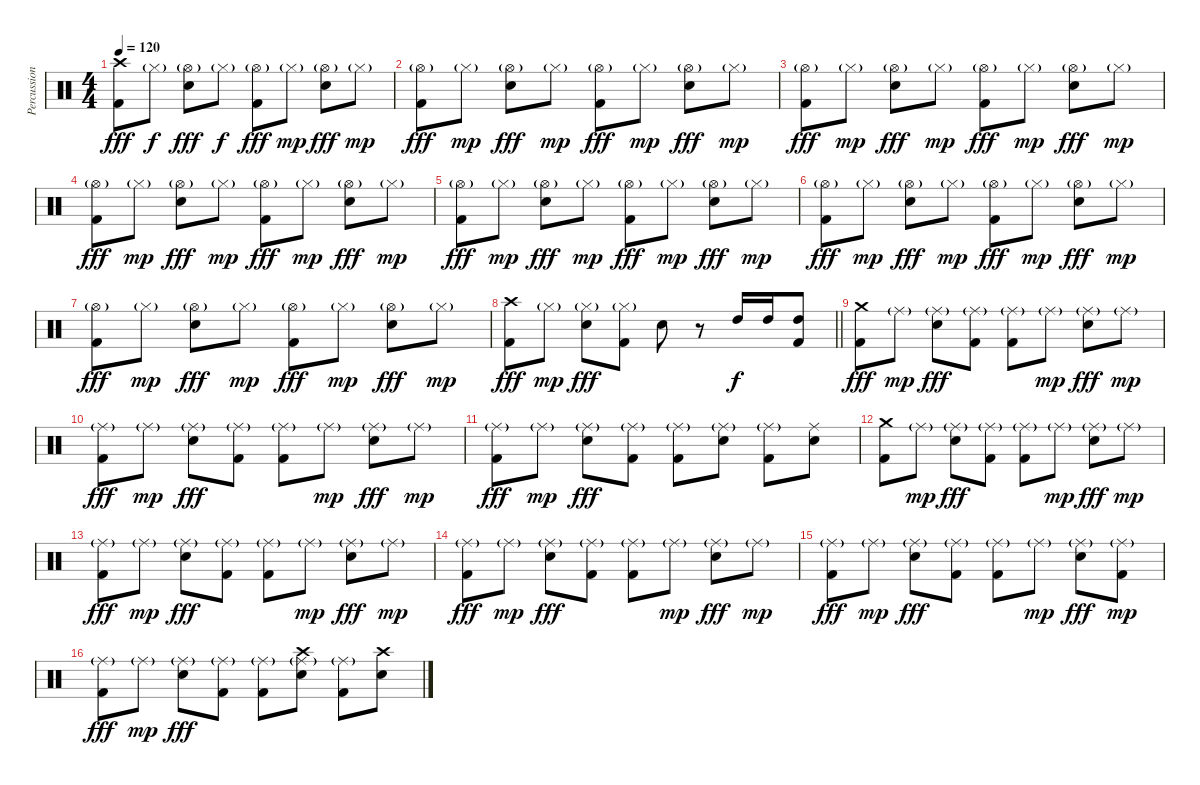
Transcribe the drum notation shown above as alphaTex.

\track ("Percussion" "Percussion") {instrument percussion}
\staff {score}
\articulation defaults
\ts (4 4)
\tempo 120
\clef neutral
\ks c
("Crash high (hit)" "Kick (hit) 2").8{dy fff} "Hi-Hat (closed)"{g}.8{dy f} ("Hi-Hat (open)"{g} "Electric Snare (hit)").8{dy fff} "Hi-Hat (closed)"{g}.8{dy f} ("Hi-Hat (open)"{g} "Kick (hit) 2").8{dy fff} "Hi-Hat (closed)"{g}.8{dy mp} ("Hi-Hat (open)"{g} "Electric Snare (hit)").8{dy fff} "Hi-Hat (closed)"{g}.8{dy mp} |
("Hi-Hat (open)"{g} "Kick (hit) 2").8{dy fff} "Hi-Hat (closed)"{g}.8{dy mp} ("Hi-Hat (open)"{g} "Electric Snare (hit)").8{dy fff} "Hi-Hat (closed)"{g}.8{dy mp} ("Hi-Hat (open)"{g} "Kick (hit) 2").8{dy fff} "Hi-Hat (closed)"{g}.8{dy mp} ("Hi-Hat (open)"{g} "Electric Snare (hit)").8{dy fff} "Hi-Hat (closed)"{g}.8{dy mp} |
("Hi-Hat (open)"{g} "Kick (hit) 2").8{dy fff} "Hi-Hat (closed)"{g}.8{dy mp} ("Hi-Hat (open)"{g} "Electric Snare (hit)").8{dy fff} "Hi-Hat (closed)"{g}.8{dy mp} ("Hi-Hat (open)"{g} "Kick (hit) 2").8{dy fff} "Hi-Hat (closed)"{g}.8{dy mp} ("Hi-Hat (open)"{g} "Electric Snare (hit)").8{dy fff} "Hi-Hat (closed)"{g}.8{dy mp} |
("Hi-Hat (open)"{g} "Kick (hit) 2").8{dy fff} "Hi-Hat (closed)"{g}.8{dy mp} ("Hi-Hat (open)"{g} "Electric Snare (hit)").8{dy fff} "Hi-Hat (closed)"{g}.8{dy mp} ("Hi-Hat (open)"{g} "Kick (hit) 2").8{dy fff} "Hi-Hat (closed)"{g}.8{dy mp} ("Hi-Hat (open)"{g} "Electric Snare (hit)").8{dy fff} "Hi-Hat (closed)"{g}.8{dy mp} |
("Hi-Hat (open)"{g} "Kick (hit) 2").8{dy fff} "Hi-Hat (closed)"{g}.8{dy mp} ("Hi-Hat (open)"{g} "Electric Snare (hit)").8{dy fff} "Hi-Hat (closed)"{g}.8{dy mp} ("Hi-Hat (open)"{g} "Kick (hit) 2").8{dy fff} "Hi-Hat (closed)"{g}.8{dy mp} ("Hi-Hat (open)"{g} "Electric Snare (hit)").8{dy fff} "Hi-Hat (closed)"{g}.8{dy mp} |
("Hi-Hat (open)"{g} "Kick (hit) 2").8{dy fff} "Hi-Hat (closed)"{g}.8{dy mp} ("Hi-Hat (open)"{g} "Electric Snare (hit)").8{dy fff} "Hi-Hat (closed)"{g}.8{dy mp} ("Hi-Hat (open)"{g} "Kick (hit) 2").8{dy fff} "Hi-Hat (closed)"{g}.8{dy mp} ("Hi-Hat (open)"{g} "Electric Snare (hit)").8{dy fff} "Hi-Hat (closed)"{g}.8{dy mp} |
("Hi-Hat (open)"{g} "Kick (hit) 2").8{dy fff} "Hi-Hat (closed)"{g}.8{dy mp} ("Hi-Hat (open)"{g} "Electric Snare (hit)").8{dy fff} "Hi-Hat (closed)"{g}.8{dy mp} ("Hi-Hat (open)"{g} "Kick (hit) 2").8{dy fff} "Hi-Hat (closed)"{g}.8{dy mp} ("Hi-Hat (open)"{g} "Electric Snare (hit)").8{dy fff} "Hi-Hat (closed)"{g}.8{dy mp} |
\barLineRight lightlight
("Crash high (hit)" "Kick (hit) 2").8{dy fff} "Hi-Hat (closed)"{g}.8{dy mp} ("Hi-Hat (closed)"{g} "Electric Snare (hit)").8{dy fff} ("Hi-Hat (closed)"{g} "Kick (hit) 2").8 "Electric Snare (hit)".8 r.8 "High Tom (hit)".16{dy f} "High Tom (hit)".16 ("Kick (hit) 2" "High Tom (hit)").8 |
("Crash medium (hit)" "Kick (hit) 2").8{dy fff} "Ride (middle)"{g}.8{dy mp} ("Ride (middle)"{g} "Electric Snare (hit)").8{dy fff} ("Ride (middle)"{g} "Kick (hit) 2").8 ("Ride (middle)"{g} "Kick (hit) 2").8 "Ride (middle)"{g}.8{dy mp} ("Ride (middle)"{g} "Electric Snare (hit)").8{dy fff} "Ride (middle)"{g}.8{dy mp} |
("Ride (middle)"{g} "Kick (hit) 2").8{dy fff} "Ride (middle)"{g}.8{dy mp} ("Ride (middle)"{g} "Electric Snare (hit)").8{dy fff} ("Ride (middle)"{g} "Kick (hit) 2").8 ("Ride (middle)"{g} "Kick (hit) 2").8 "Ride (middle)"{g}.8{dy mp} ("Ride (middle)"{g} "Electric Snare (hit)").8{dy fff} "Ride (middle)"{g}.8{dy mp} |
("Ride (middle)"{g} "Kick (hit) 2").8{dy fff} "Ride (middle)"{g}.8{dy mp} ("Ride (middle)"{g} "Electric Snare (hit)").8{dy fff} ("Ride (middle)"{g} "Kick (hit) 2").8 ("Ride (middle)"{g} "Kick (hit) 2").8 ("Ride (middle)"{g} "Electric Snare (hit)").8 ("Ride (middle)"{g} "Kick (hit) 2").8 ("Ride (middle)" "Electric Snare (hit)").8 |
("Crash medium (hit)" "Kick (hit) 2").8 "Ride (middle)"{g}.8{dy mp} ("Ride (middle)"{g} "Electric Snare (hit)").8{dy fff} ("Ride (middle)"{g} "Kick (hit) 2").8 ("Ride (middle)"{g} "Kick (hit) 2").8 "Ride (middle)"{g}.8{dy mp} ("Ride (middle)"{g} "Electric Snare (hit)").8{dy fff} "Ride (middle)"{g}.8{dy mp} |
("Ride (middle)"{g} "Kick (hit) 2").8{dy fff} "Ride (middle)"{g}.8{dy mp} ("Ride (middle)"{g} "Electric Snare (hit)").8{dy fff} ("Ride (middle)"{g} "Kick (hit) 2").8 ("Ride (middle)"{g} "Kick (hit) 2").8 "Ride (middle)"{g}.8{dy mp} ("Ride (middle)"{g} "Electric Snare (hit)").8{dy fff} "Ride (middle)"{g}.8{dy mp} |
("Ride (middle)"{g} "Kick (hit) 2").8{dy fff} "Ride (middle)"{g}.8{dy mp} ("Ride (middle)"{g} "Electric Snare (hit)").8{dy fff} ("Ride (middle)"{g} "Kick (hit) 2").8 ("Ride (middle)"{g} "Kick (hit) 2").8 "Ride (middle)"{g}.8{dy mp} ("Ride (middle)"{g} "Electric Snare (hit)").8{dy fff} "Ride (middle)"{g}.8{dy mp} |
("Ride (middle)"{g} "Kick (hit) 2").8{dy fff} "Ride (middle)"{g}.8{dy mp} ("Ride (middle)"{g} "Electric Snare (hit)").8{dy fff} ("Ride (middle)"{g} "Kick (hit) 2").8 ("Ride (middle)"{g} "Kick (hit) 2").8 "Ride (middle)"{g}.8{dy mp} ("Ride (middle)"{g} "Electric Snare (hit)").8{dy fff} ("Ride (middle)"{g} "Kick (hit) 2").8{dy mp} |
("Ride (middle)"{g} "Kick (hit) 2").8{dy fff} "Ride (middle)"{g}.8{dy mp} ("Ride (middle)"{g} "Electric Snare (hit)").8{dy fff} ("Ride (middle)"{g} "Kick (hit) 2").8 ("Ride (middle)"{g} "Kick (hit) 2").8 ("Crash high (hit)" "Ride (middle)"{g} "Electric Snare (hit)").8 ("Ride (middle)"{g} "Kick (hit) 2").8 ("Crash high (hit)" "Electric Snare (hit)").8
